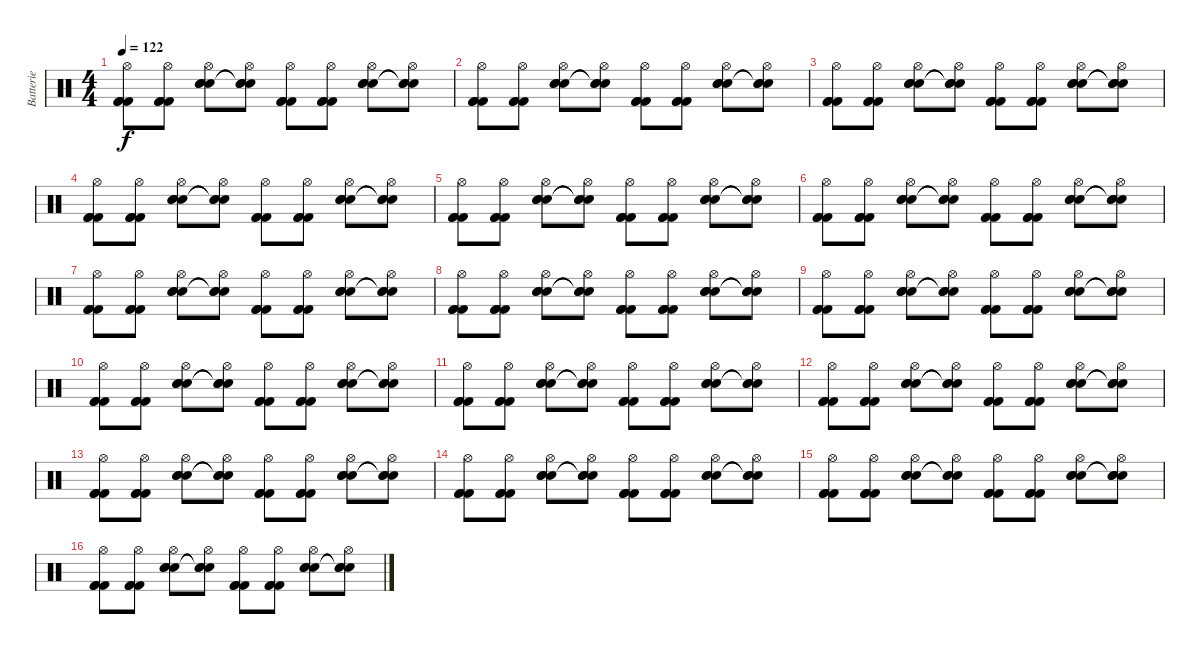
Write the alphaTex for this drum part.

\track ("Batterie" "Batterie") {instrument percussion}
\staff {score}
\articulation defaults
\ts (4 4)
\tempo 122
\clef neutral
\ks c
("Hi-Hat (open)" "Kick (hit) 2" "Kick (hit) 2" "Kick (hit) 2").8{dy f} ("Hi-Hat (open)" "Kick (hit) 2" "Kick (hit) 2" "Kick (hit) 2").8 ("Hi-Hat (open)" "Snare (hit) 2" "Snare (hit) 2" "Snare (hit) 2").8 ("Hi-Hat (open)" "Snare (hit)"{t} "Snare (hit)"{t} "Snare (hit)"{t}).8 ("Hi-Hat (open)" "Kick (hit) 2" "Kick (hit) 2" "Kick (hit) 2").8 ("Hi-Hat (open)" "Kick (hit) 2" "Kick (hit) 2" "Kick (hit) 2").8 ("Hi-Hat (open)" "Snare (hit) 2" "Snare (hit) 2" "Snare (hit) 2").8 ("Hi-Hat (open)" "Snare (hit)"{t} "Snare (hit)"{t} "Snare (hit)"{t}).8 |
("Hi-Hat (open)" "Kick (hit) 2" "Kick (hit) 2" "Kick (hit) 2").8 ("Hi-Hat (open)" "Kick (hit) 2" "Kick (hit) 2" "Kick (hit) 2").8 ("Hi-Hat (open)" "Snare (hit) 2" "Snare (hit) 2" "Snare (hit) 2").8 ("Hi-Hat (open)" "Snare (hit)"{t} "Snare (hit)"{t} "Snare (hit)"{t}).8 ("Hi-Hat (open)" "Kick (hit) 2" "Kick (hit) 2" "Kick (hit) 2").8 ("Hi-Hat (open)" "Kick (hit) 2" "Kick (hit) 2" "Kick (hit) 2").8 ("Hi-Hat (open)" "Snare (hit) 2" "Snare (hit) 2" "Snare (hit) 2").8 ("Hi-Hat (open)" "Snare (hit)"{t} "Snare (hit)"{t} "Snare (hit)"{t}).8 |
("Hi-Hat (open)" "Kick (hit) 2" "Kick (hit) 2" "Kick (hit) 2").8 ("Hi-Hat (open)" "Kick (hit) 2" "Kick (hit) 2" "Kick (hit) 2").8 ("Hi-Hat (open)" "Snare (hit) 2" "Snare (hit) 2" "Snare (hit) 2").8 ("Hi-Hat (open)" "Snare (hit)"{t} "Snare (hit)"{t} "Snare (hit)"{t}).8 ("Hi-Hat (open)" "Kick (hit) 2" "Kick (hit) 2" "Kick (hit) 2").8 ("Hi-Hat (open)" "Kick (hit) 2" "Kick (hit) 2" "Kick (hit) 2").8 ("Hi-Hat (open)" "Snare (hit) 2" "Snare (hit) 2" "Snare (hit) 2").8 ("Hi-Hat (open)" "Snare (hit)"{t} "Snare (hit)"{t} "Snare (hit)"{t}).8 |
("Hi-Hat (open)" "Kick (hit) 2" "Kick (hit) 2" "Kick (hit) 2").8 ("Hi-Hat (open)" "Kick (hit) 2" "Kick (hit) 2" "Kick (hit) 2").8 ("Hi-Hat (open)" "Snare (hit) 2" "Snare (hit) 2" "Snare (hit) 2").8 ("Hi-Hat (open)" "Snare (hit)"{t} "Snare (hit)"{t} "Snare (hit)"{t}).8 ("Hi-Hat (open)" "Kick (hit) 2" "Kick (hit) 2" "Kick (hit) 2").8 ("Hi-Hat (open)" "Kick (hit) 2" "Kick (hit) 2" "Kick (hit) 2").8 ("Hi-Hat (open)" "Snare (hit) 2" "Snare (hit) 2" "Snare (hit) 2").8 ("Hi-Hat (open)" "Snare (hit)"{t} "Snare (hit)"{t} "Snare (hit)"{t}).8 |
("Hi-Hat (open)" "Kick (hit) 2" "Kick (hit) 2" "Kick (hit) 2").8 ("Hi-Hat (open)" "Kick (hit) 2" "Kick (hit) 2" "Kick (hit) 2").8 ("Hi-Hat (open)" "Snare (hit) 2" "Snare (hit) 2" "Snare (hit) 2").8 ("Hi-Hat (open)" "Snare (hit)"{t} "Snare (hit)"{t} "Snare (hit)"{t}).8 ("Hi-Hat (open)" "Kick (hit) 2" "Kick (hit) 2" "Kick (hit) 2").8 ("Hi-Hat (open)" "Kick (hit) 2" "Kick (hit) 2" "Kick (hit) 2").8 ("Hi-Hat (open)" "Snare (hit) 2" "Snare (hit) 2" "Snare (hit) 2").8 ("Hi-Hat (open)" "Snare (hit)"{t} "Snare (hit)"{t} "Snare (hit)"{t}).8 |
("Hi-Hat (open)" "Kick (hit) 2" "Kick (hit) 2" "Kick (hit) 2").8 ("Hi-Hat (open)" "Kick (hit) 2" "Kick (hit) 2" "Kick (hit) 2").8 ("Hi-Hat (open)" "Snare (hit) 2" "Snare (hit) 2" "Snare (hit) 2").8 ("Hi-Hat (open)" "Snare (hit)"{t} "Snare (hit)"{t} "Snare (hit)"{t}).8 ("Hi-Hat (open)" "Kick (hit) 2" "Kick (hit) 2" "Kick (hit) 2").8 ("Hi-Hat (open)" "Kick (hit) 2" "Kick (hit) 2" "Kick (hit) 2").8 ("Hi-Hat (open)" "Snare (hit) 2" "Snare (hit) 2" "Snare (hit) 2").8 ("Hi-Hat (open)" "Snare (hit)"{t} "Snare (hit)"{t} "Snare (hit)"{t}).8 |
("Hi-Hat (open)" "Kick (hit) 2" "Kick (hit) 2" "Kick (hit) 2").8 ("Hi-Hat (open)" "Kick (hit) 2" "Kick (hit) 2" "Kick (hit) 2").8 ("Hi-Hat (open)" "Snare (hit) 2" "Snare (hit) 2" "Snare (hit) 2").8 ("Hi-Hat (open)" "Snare (hit)"{t} "Snare (hit)"{t} "Snare (hit)"{t}).8 ("Hi-Hat (open)" "Kick (hit) 2" "Kick (hit) 2" "Kick (hit) 2").8 ("Hi-Hat (open)" "Kick (hit) 2" "Kick (hit) 2" "Kick (hit) 2").8 ("Hi-Hat (open)" "Snare (hit) 2" "Snare (hit) 2" "Snare (hit) 2").8 ("Hi-Hat (open)" "Snare (hit)"{t} "Snare (hit)"{t} "Snare (hit)"{t}).8 |
("Hi-Hat (open)" "Kick (hit) 2" "Kick (hit) 2" "Kick (hit) 2").8 ("Hi-Hat (open)" "Kick (hit) 2" "Kick (hit) 2" "Kick (hit) 2").8 ("Hi-Hat (open)" "Snare (hit) 2" "Snare (hit) 2" "Snare (hit) 2").8 ("Hi-Hat (open)" "Snare (hit)"{t} "Snare (hit)"{t} "Snare (hit)"{t}).8 ("Hi-Hat (open)" "Kick (hit) 2" "Kick (hit) 2" "Kick (hit) 2").8 ("Hi-Hat (open)" "Kick (hit) 2" "Kick (hit) 2" "Kick (hit) 2").8 ("Hi-Hat (open)" "Snare (hit) 2" "Snare (hit) 2" "Snare (hit) 2").8 ("Hi-Hat (open)" "Snare (hit)"{t} "Snare (hit)"{t} "Snare (hit)"{t}).8 |
("Hi-Hat (open)" "Kick (hit) 2" "Kick (hit) 2" "Kick (hit) 2").8 ("Hi-Hat (open)" "Kick (hit) 2" "Kick (hit) 2" "Kick (hit) 2").8 ("Hi-Hat (open)" "Snare (hit) 2" "Snare (hit) 2" "Snare (hit) 2").8 ("Hi-Hat (open)" "Snare (hit)"{t} "Snare (hit)"{t} "Snare (hit)"{t}).8 ("Hi-Hat (open)" "Kick (hit) 2" "Kick (hit) 2" "Kick (hit) 2").8 ("Hi-Hat (open)" "Kick (hit) 2" "Kick (hit) 2" "Kick (hit) 2").8 ("Hi-Hat (open)" "Snare (hit) 2" "Snare (hit) 2" "Snare (hit) 2").8 ("Hi-Hat (open)" "Snare (hit)"{t} "Snare (hit)"{t} "Snare (hit)"{t}).8 |
("Hi-Hat (open)" "Kick (hit) 2" "Kick (hit) 2" "Kick (hit) 2").8 ("Hi-Hat (open)" "Kick (hit) 2" "Kick (hit) 2" "Kick (hit) 2").8 ("Hi-Hat (open)" "Snare (hit) 2" "Snare (hit) 2" "Snare (hit) 2").8 ("Hi-Hat (open)" "Snare (hit)"{t} "Snare (hit)"{t} "Snare (hit)"{t}).8 ("Hi-Hat (open)" "Kick (hit) 2" "Kick (hit) 2" "Kick (hit) 2").8 ("Hi-Hat (open)" "Kick (hit) 2" "Kick (hit) 2" "Kick (hit) 2").8 ("Hi-Hat (open)" "Snare (hit) 2" "Snare (hit) 2" "Snare (hit) 2").8 ("Hi-Hat (open)" "Snare (hit)"{t} "Snare (hit)"{t} "Snare (hit)"{t}).8 |
("Hi-Hat (open)" "Kick (hit) 2" "Kick (hit) 2" "Kick (hit) 2").8 ("Hi-Hat (open)" "Kick (hit) 2" "Kick (hit) 2" "Kick (hit) 2").8 ("Hi-Hat (open)" "Snare (hit) 2" "Snare (hit) 2" "Snare (hit) 2").8 ("Hi-Hat (open)" "Snare (hit)"{t} "Snare (hit)"{t} "Snare (hit)"{t}).8 ("Hi-Hat (open)" "Kick (hit) 2" "Kick (hit) 2" "Kick (hit) 2").8 ("Hi-Hat (open)" "Kick (hit) 2" "Kick (hit) 2" "Kick (hit) 2").8 ("Hi-Hat (open)" "Snare (hit) 2" "Snare (hit) 2" "Snare (hit) 2").8 ("Hi-Hat (open)" "Snare (hit)"{t} "Snare (hit)"{t} "Snare (hit)"{t}).8 |
("Hi-Hat (open)" "Kick (hit) 2" "Kick (hit) 2" "Kick (hit) 2").8 ("Hi-Hat (open)" "Kick (hit) 2" "Kick (hit) 2" "Kick (hit) 2").8 ("Hi-Hat (open)" "Snare (hit) 2" "Snare (hit) 2" "Snare (hit) 2").8 ("Hi-Hat (open)" "Snare (hit)"{t} "Snare (hit)"{t} "Snare (hit)"{t}).8 ("Hi-Hat (open)" "Kick (hit) 2" "Kick (hit) 2" "Kick (hit) 2").8 ("Hi-Hat (open)" "Kick (hit) 2" "Kick (hit) 2" "Kick (hit) 2").8 ("Hi-Hat (open)" "Snare (hit) 2" "Snare (hit) 2" "Snare (hit) 2").8 ("Hi-Hat (open)" "Snare (hit)"{t} "Snare (hit)"{t} "Snare (hit)"{t}).8 |
("Hi-Hat (open)" "Kick (hit) 2" "Kick (hit) 2" "Kick (hit) 2").8 ("Hi-Hat (open)" "Kick (hit) 2" "Kick (hit) 2" "Kick (hit) 2").8 ("Hi-Hat (open)" "Snare (hit) 2" "Snare (hit) 2" "Snare (hit) 2").8 ("Hi-Hat (open)" "Snare (hit)"{t} "Snare (hit)"{t} "Snare (hit)"{t}).8 ("Hi-Hat (open)" "Kick (hit) 2" "Kick (hit) 2" "Kick (hit) 2").8 ("Hi-Hat (open)" "Kick (hit) 2" "Kick (hit) 2" "Kick (hit) 2").8 ("Hi-Hat (open)" "Snare (hit) 2" "Snare (hit) 2" "Snare (hit) 2").8 ("Hi-Hat (open)" "Snare (hit)"{t} "Snare (hit)"{t} "Snare (hit)"{t}).8 |
("Hi-Hat (open)" "Kick (hit) 2" "Kick (hit) 2" "Kick (hit) 2").8 ("Hi-Hat (open)" "Kick (hit) 2" "Kick (hit) 2" "Kick (hit) 2").8 ("Hi-Hat (open)" "Snare (hit) 2" "Snare (hit) 2" "Snare (hit) 2").8 ("Hi-Hat (open)" "Snare (hit)"{t} "Snare (hit)"{t} "Snare (hit)"{t}).8 ("Hi-Hat (open)" "Kick (hit) 2" "Kick (hit) 2" "Kick (hit) 2").8 ("Hi-Hat (open)" "Kick (hit) 2" "Kick (hit) 2" "Kick (hit) 2").8 ("Hi-Hat (open)" "Snare (hit) 2" "Snare (hit) 2" "Snare (hit) 2").8 ("Hi-Hat (open)" "Snare (hit)"{t} "Snare (hit)"{t} "Snare (hit)"{t}).8 |
("Hi-Hat (open)" "Kick (hit) 2" "Kick (hit) 2" "Kick (hit) 2").8 ("Hi-Hat (open)" "Kick (hit) 2" "Kick (hit) 2" "Kick (hit) 2").8 ("Hi-Hat (open)" "Snare (hit) 2" "Snare (hit) 2" "Snare (hit) 2").8 ("Hi-Hat (open)" "Snare (hit)"{t} "Snare (hit)"{t} "Snare (hit)"{t}).8 ("Hi-Hat (open)" "Kick (hit) 2" "Kick (hit) 2" "Kick (hit) 2").8 ("Hi-Hat (open)" "Kick (hit) 2" "Kick (hit) 2" "Kick (hit) 2").8 ("Hi-Hat (open)" "Snare (hit) 2" "Snare (hit) 2" "Snare (hit) 2").8 ("Hi-Hat (open)" "Snare (hit)"{t} "Snare (hit)"{t} "Snare (hit)"{t}).8 |
("Hi-Hat (open)" "Kick (hit) 2" "Kick (hit) 2" "Kick (hit) 2").8 ("Hi-Hat (open)" "Kick (hit) 2" "Kick (hit) 2" "Kick (hit) 2").8 ("Hi-Hat (open)" "Snare (hit) 2" "Snare (hit) 2" "Snare (hit) 2").8 ("Hi-Hat (open)" "Snare (hit)"{t} "Snare (hit)"{t} "Snare (hit)"{t}).8 ("Hi-Hat (open)" "Kick (hit) 2" "Kick (hit) 2" "Kick (hit) 2").8 ("Hi-Hat (open)" "Kick (hit) 2" "Kick (hit) 2" "Kick (hit) 2").8 ("Hi-Hat (open)" "Snare (hit) 2" "Snare (hit) 2" "Snare (hit) 2").8 ("Hi-Hat (open)" "Snare (hit)"{t} "Snare (hit)"{t} "Snare (hit)"{t}).8
